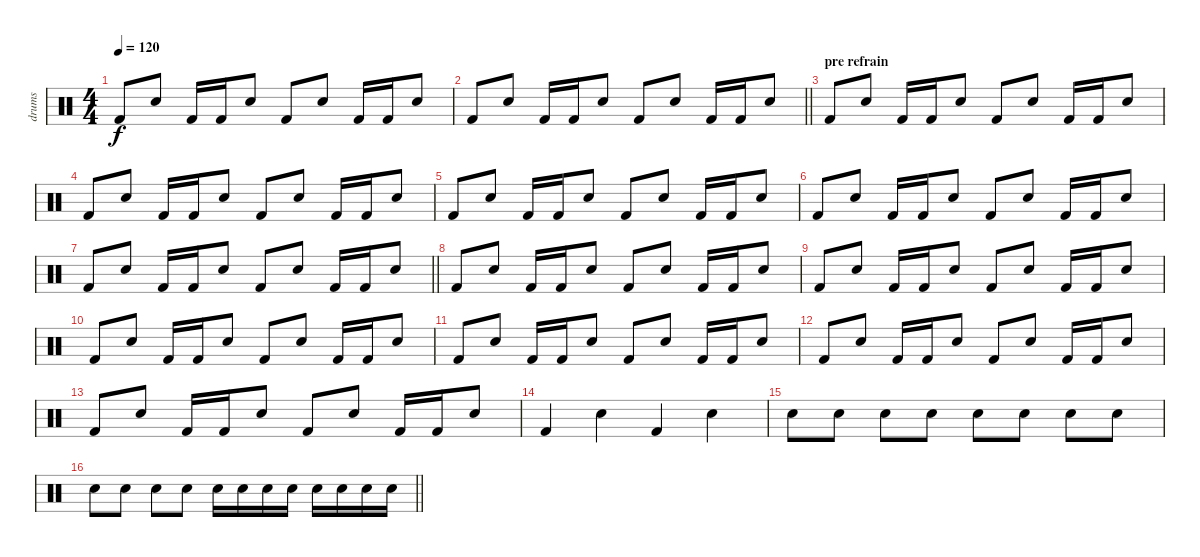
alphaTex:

\track ("drums" "drums") {instrument percussion}
\staff {score}
\articulation defaults
\ts (4 4)
\tempo 120
\clef neutral
\ks c "Kick (hit) 2".8{dy f} "Snare (hit) 2".8 "Kick (hit) 2".16 "Kick (hit) 2".16 "Snare (hit) 2".8 "Kick (hit) 2".8 "Snare (hit) 2".8 "Kick (hit) 2".16 "Kick (hit) 2".16 "Snare (hit) 2".8
|
\barLineRight lightlight "Kick (hit) 2".8 "Snare (hit) 2".8 "Kick (hit) 2".16 "Kick (hit) 2".16 "Snare (hit) 2".8 "Kick (hit) 2".8 "Snare (hit) 2".8 "Kick (hit) 2".16 "Kick (hit) 2".16 "Snare (hit) 2".8
|
\section ("" "pre refrain")
"Kick (hit) 2".8 "Snare (hit) 2".8 "Kick (hit) 2".16 "Kick (hit) 2".16 "Snare (hit) 2".8 "Kick (hit) 2".8 "Snare (hit) 2".8 "Kick (hit) 2".16 "Kick (hit) 2".16 "Snare (hit) 2".8 |
"Kick (hit) 2".8 "Snare (hit) 2".8 "Kick (hit) 2".16 "Kick (hit) 2".16 "Snare (hit) 2".8 "Kick (hit) 2".8 "Snare (hit) 2".8 "Kick (hit) 2".16 "Kick (hit) 2".16 "Snare (hit) 2".8 |
"Kick (hit) 2".8 "Snare (hit) 2".8 "Kick (hit) 2".16 "Kick (hit) 2".16 "Snare (hit) 2".8 "Kick (hit) 2".8 "Snare (hit) 2".8 "Kick (hit) 2".16 "Kick (hit) 2".16 "Snare (hit) 2".8 |
"Kick (hit) 2".8 "Snare (hit) 2".8 "Kick (hit) 2".16 "Kick (hit) 2".16 "Snare (hit) 2".8 "Kick (hit) 2".8 "Snare (hit) 2".8 "Kick (hit) 2".16 "Kick (hit) 2".16 "Snare (hit) 2".8 |
\barLineRight lightlight "Kick (hit) 2".8 "Snare (hit) 2".8 "Kick (hit) 2".16 "Kick (hit) 2".16 "Snare (hit) 2".8 "Kick (hit) 2".8 "Snare (hit) 2".8 "Kick (hit) 2".16 "Kick (hit) 2".16 "Snare (hit) 2".8
|
"Kick (hit) 2".8 "Snare (hit) 2".8 "Kick (hit) 2".16 "Kick (hit) 2".16 "Snare (hit) 2".8 "Kick (hit) 2".8 "Snare (hit) 2".8 "Kick (hit) 2".16 "Kick (hit) 2".16 "Snare (hit) 2".8 |
"Kick (hit) 2".8 "Snare (hit) 2".8 "Kick (hit) 2".16 "Kick (hit) 2".16 "Snare (hit) 2".8 "Kick (hit) 2".8 "Snare (hit) 2".8 "Kick (hit) 2".16 "Kick (hit) 2".16 "Snare (hit) 2".8 |
"Kick (hit) 2".8 "Snare (hit) 2".8 "Kick (hit) 2".16 "Kick (hit) 2".16 "Snare (hit) 2".8 "Kick (hit) 2".8 "Snare (hit) 2".8 "Kick (hit) 2".16 "Kick (hit) 2".16 "Snare (hit) 2".8 |
"Kick (hit) 2".8 "Snare (hit) 2".8 "Kick (hit) 2".16 "Kick (hit) 2".16 "Snare (hit) 2".8 "Kick (hit) 2".8 "Snare (hit) 2".8 "Kick (hit) 2".16 "Kick (hit) 2".16 "Snare (hit) 2".8 |
"Kick (hit) 2".8 "Snare (hit) 2".8 "Kick (hit) 2".16 "Kick (hit) 2".16 "Snare (hit) 2".8 "Kick (hit) 2".8 "Snare (hit) 2".8 "Kick (hit) 2".16 "Kick (hit) 2".16 "Snare (hit) 2".8 |
"Kick (hit) 2".8 "Snare (hit) 2".8 "Kick (hit) 2".16 "Kick (hit) 2".16 "Snare (hit) 2".8 "Kick (hit) 2".8 "Snare (hit) 2".8 "Kick (hit) 2".16 "Kick (hit) 2".16 "Snare (hit) 2".8 |
"Kick (hit) 2".4 "Snare (hit) 2".4 "Kick (hit) 2".4 "Snare (hit) 2".4 |
"Snare (hit) 2".8 "Snare (hit) 2".8 "Snare (hit) 2".8 "Snare (hit) 2".8 "Snare (hit) 2".8 "Snare (hit) 2".8 "Snare (hit) 2".8 "Snare (hit) 2".8 |
\barLineRight lightlight "Snare (hit) 2".8 "Snare (hit) 2".8 "Snare (hit) 2".8 "Snare (hit) 2".8 "Snare (hit) 2".16 "Snare (hit) 2".16 "Snare (hit) 2".16 "Snare (hit) 2".16 "Snare (hit) 2".16 "Snare (hit) 2".16 "Snare (hit) 2".16 "Snare (hit) 2".16
